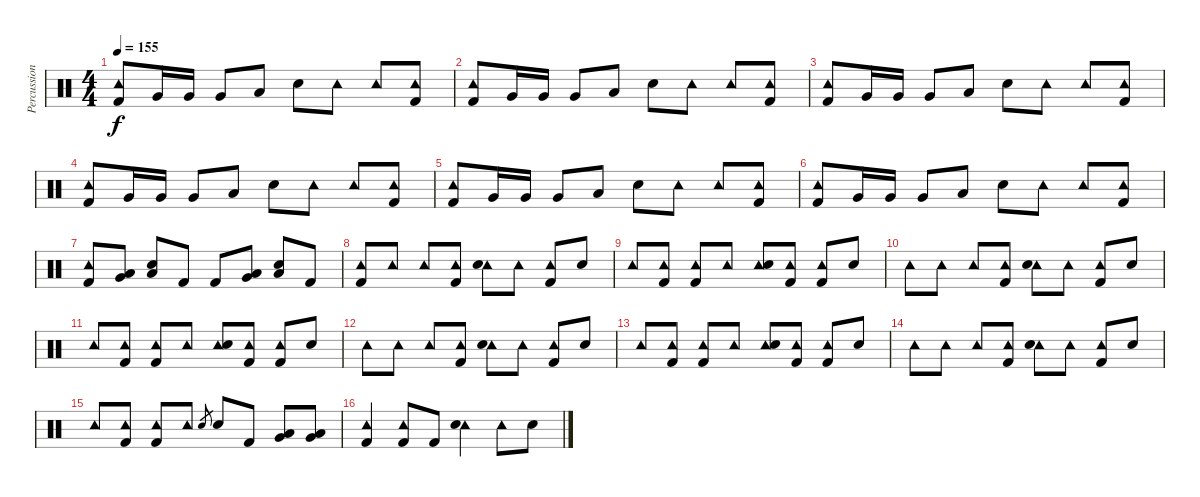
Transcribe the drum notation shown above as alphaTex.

\track ("Percussion" "Percussion") {instrument percussion}
\staff {score}
\articulation defaults
\ts (4 4)
\tempo 155
\clef neutral
\ks c
("Tambourine (hit)" "Kick (hit) 2").8{dy f} "Very Low Tom (hit)".16 "Very Low Tom (hit)".16 "Very Low Tom (hit)".8 "Low Floor Tom (hit)".8 "Electric Snare (hit)".8 "Tambourine (hit)".8 "Tambourine (hit)".8 ("Tambourine (hit)" "Kick (hit) 2").8 |
("Tambourine (hit)" "Kick (hit) 2").8 "Very Low Tom (hit)".16 "Very Low Tom (hit)".16 "Very Low Tom (hit)".8 "Low Floor Tom (hit)".8 "Electric Snare (hit)".8 "Tambourine (hit)".8 "Tambourine (hit)".8 ("Tambourine (hit)" "Kick (hit) 2").8 |
("Tambourine (hit)" "Kick (hit) 2").8 "Very Low Tom (hit)".16 "Very Low Tom (hit)".16 "Very Low Tom (hit)".8 "Low Floor Tom (hit)".8 "Electric Snare (hit)".8 "Tambourine (hit)".8 "Tambourine (hit)".8 ("Tambourine (hit)" "Kick (hit) 2").8 |
("Tambourine (hit)" "Kick (hit) 2").8 "Very Low Tom (hit)".16 "Very Low Tom (hit)".16 "Very Low Tom (hit)".8 "Low Floor Tom (hit)".8 "Electric Snare (hit)".8 "Tambourine (hit)".8 "Tambourine (hit)".8 ("Tambourine (hit)" "Kick (hit) 2").8 |
("Tambourine (hit)" "Kick (hit) 2").8 "Very Low Tom (hit)".16 "Very Low Tom (hit)".16 "Very Low Tom (hit)".8 "Low Floor Tom (hit)".8 "Electric Snare (hit)".8 "Tambourine (hit)".8 "Tambourine (hit)".8 ("Tambourine (hit)" "Kick (hit) 2").8 |
("Tambourine (hit)" "Kick (hit) 2").8 "Very Low Tom (hit)".16 "Very Low Tom (hit)".16 "Very Low Tom (hit)".8 "Low Floor Tom (hit)".8 "Electric Snare (hit)".8 "Tambourine (hit)".8 "Tambourine (hit)".8 ("Tambourine (hit)" "Kick (hit) 2").8 |
("Tambourine (hit)" "Kick (hit) 2").8 ("Very Low Tom (hit)" "Low Floor Tom (hit)").8 ("Electric Snare (hit)" "Low Floor Tom (hit)").8 "Kick (hit) 2".8 "Kick (hit) 2".8 ("Very Low Tom (hit)" "Low Floor Tom (hit)").8 ("Electric Snare (hit)" "Low Floor Tom (hit)").8 "Kick (hit) 2".8 |
("Tambourine (hit)" "Kick (hit) 2").8 "Tambourine (hit)".8 "Tambourine (hit)".8 ("Tambourine (hit)" "Kick (hit) 2").8 ("Tambourine (hit)" "Electric Snare (hit)").8 "Tambourine (hit)".8 ("Tambourine (hit)" "Kick (hit) 2").8 "Electric Snare (hit)".8 |
"Tambourine (hit)".8 ("Tambourine (hit)" "Kick (hit) 2").8 ("Tambourine (hit)" "Kick (hit) 2").8 "Tambourine (hit)".8 ("Tambourine (hit)" "Electric Snare (hit)").8 ("Tambourine (hit)" "Kick (hit) 2").8 ("Tambourine (hit)" "Kick (hit) 2").8 "Electric Snare (hit)".8 |
"Tambourine (hit)".8 "Tambourine (hit)".8 "Tambourine (hit)".8 ("Tambourine (hit)" "Kick (hit) 2").8 ("Tambourine (hit)" "Electric Snare (hit)").8 "Tambourine (hit)".8 ("Tambourine (hit)" "Kick (hit) 2").8 "Electric Snare (hit)".8 |
"Tambourine (hit)".8 ("Tambourine (hit)" "Kick (hit) 2").8 ("Tambourine (hit)" "Kick (hit) 2").8 "Tambourine (hit)".8 ("Tambourine (hit)" "Electric Snare (hit)").8 ("Tambourine (hit)" "Kick (hit) 2").8 ("Tambourine (hit)" "Kick (hit) 2").8 "Electric Snare (hit)".8 |
"Tambourine (hit)".8 "Tambourine (hit)".8 "Tambourine (hit)".8 ("Tambourine (hit)" "Kick (hit) 2").8 ("Tambourine (hit)" "Electric Snare (hit)").8 "Tambourine (hit)".8 ("Tambourine (hit)" "Kick (hit) 2").8 "Electric Snare (hit)".8 |
"Tambourine (hit)".8 ("Tambourine (hit)" "Kick (hit) 2").8 ("Tambourine (hit)" "Kick (hit) 2").8 "Tambourine (hit)".8 ("Tambourine (hit)" "Electric Snare (hit)").8 ("Tambourine (hit)" "Kick (hit) 2").8 ("Tambourine (hit)" "Kick (hit) 2").8 "Electric Snare (hit)".8 |
"Tambourine (hit)".8 "Tambourine (hit)".8 "Tambourine (hit)".8 ("Tambourine (hit)" "Kick (hit) 2").8 ("Tambourine (hit)" "Electric Snare (hit)").8 "Tambourine (hit)".8 ("Tambourine (hit)" "Kick (hit) 2").8 "Electric Snare (hit)".8 |
"Tambourine (hit)".8 ("Tambourine (hit)" "Kick (hit) 2").8 ("Tambourine (hit)" "Kick (hit) 2").8 "Tambourine (hit)".8 "Electric Snare (hit)".8{gr} "Electric Snare (hit)".8 "Kick (hit) 2".8 ("Very Low Tom (hit)" "Low Floor Tom (hit)").8 ("Very Low Tom (hit)" "Low Floor Tom (hit)").8 |
("Tambourine (hit)" "Kick (hit) 2").4 ("Tambourine (hit)" "Kick (hit) 2").8 "Kick (hit) 2".8 ("Tambourine (hit)" "Electric Snare (hit)").4 "Tambourine (hit)".8 "Electric Snare (hit)".8
